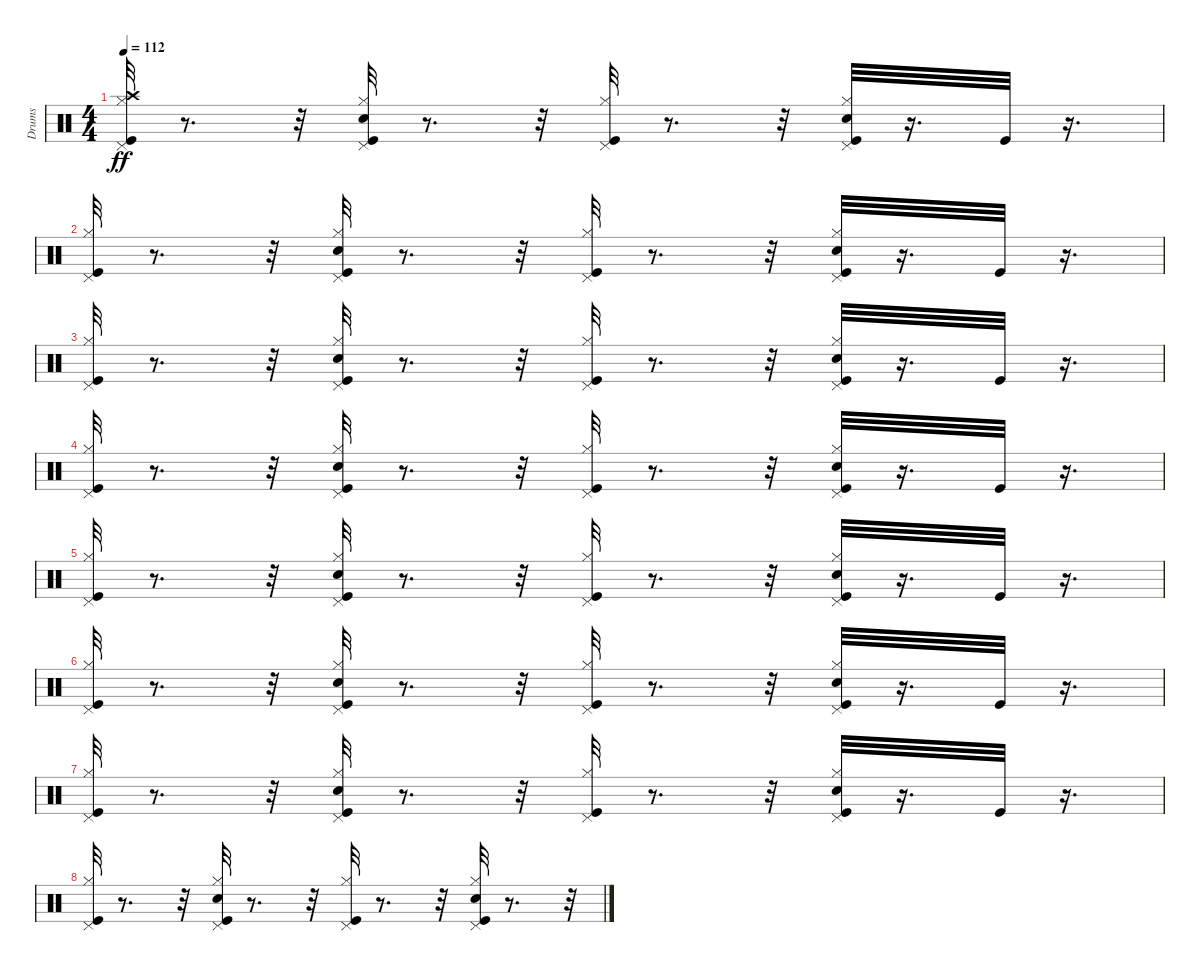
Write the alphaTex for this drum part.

\track ("Drums" "Drums") {instrument percussion}
\staff {score}
\articulation defaults
\ts (4 4)
\tempo 112
\clef neutral
\ks c
("Kick (hit)" "Crash high (hit)" "Hi-Hat (closed)" "Pedal Hi-Hat (hit)").32{dy ff} r.8{d} r.32 ("Hi-Hat (closed)" "Kick (hit)" "Pedal Hi-Hat (hit)" "Snare (hit) 2").32 r.8{d} r.32 ("Pedal Hi-Hat (hit)" "Hi-Hat (closed)" "Kick (hit)").32 r.8{d} r.32 ("Kick (hit)" "Pedal Hi-Hat (hit)" "Snare (hit) 2" "Hi-Hat (closed)").32 r.16{d} "Kick (hit)".32 r.16{d} |
("Pedal Hi-Hat (hit)" "Kick (hit)" "Hi-Hat (closed)").32 r.8{d} r.32 ("Kick (hit)" "Snare (hit) 2" "Hi-Hat (closed)" "Pedal Hi-Hat (hit)").32 r.8{d} r.32 ("Pedal Hi-Hat (hit)" "Hi-Hat (closed)" "Kick (hit)").32 r.8{d} r.32 ("Kick (hit)" "Snare (hit) 2" "Pedal Hi-Hat (hit)" "Hi-Hat (closed)").32 r.16{d} "Kick (hit)".32 r.16{d} |
("Pedal Hi-Hat (hit)" "Kick (hit)" "Hi-Hat (closed)").32 r.8{d} r.32 ("Hi-Hat (closed)" "Pedal Hi-Hat (hit)" "Snare (hit) 2" "Kick (hit)").32 r.8{d} r.32 ("Pedal Hi-Hat (hit)" "Kick (hit)" "Hi-Hat (closed)").32 r.8{d} r.32 ("Pedal Hi-Hat (hit)" "Kick (hit)" "Snare (hit) 2" "Hi-Hat (closed)").32 r.16{d} "Kick (hit)".32 r.16{d} |
("Hi-Hat (closed)" "Pedal Hi-Hat (hit)" "Kick (hit)").32 r.8{d} r.32 ("Pedal Hi-Hat (hit)" "Hi-Hat (closed)" "Kick (hit)" "Snare (hit) 2").32 r.8{d} r.32 ("Pedal Hi-Hat (hit)" "Hi-Hat (closed)" "Kick (hit)").32 r.8{d} r.32 ("Pedal Hi-Hat (hit)" "Snare (hit) 2" "Hi-Hat (closed)" "Kick (hit)").32 r.16{d} "Kick (hit)".32 r.16{d} |
("Hi-Hat (closed)" "Pedal Hi-Hat (hit)" "Kick (hit)").32 r.8{d} r.32 ("Pedal Hi-Hat (hit)" "Kick (hit)" "Hi-Hat (closed)" "Snare (hit) 2").32 r.8{d} r.32 ("Pedal Hi-Hat (hit)" "Hi-Hat (closed)" "Kick (hit)").32 r.8{d} r.32 ("Hi-Hat (closed)" "Snare (hit) 2" "Kick (hit)" "Pedal Hi-Hat (hit)").32 r.16{d} "Kick (hit)".32 r.16{d} |
("Pedal Hi-Hat (hit)" "Kick (hit)" "Hi-Hat (closed)").32 r.8{d} r.32 ("Kick (hit)" "Snare (hit) 2" "Pedal Hi-Hat (hit)" "Hi-Hat (closed)").32 r.8{d} r.32 ("Hi-Hat (closed)" "Pedal Hi-Hat (hit)" "Kick (hit)").32 r.8{d} r.32 ("Pedal Hi-Hat (hit)" "Snare (hit) 2" "Kick (hit)" "Hi-Hat (closed)").32 r.16{d} "Kick (hit)".32 r.16{d} |
("Pedal Hi-Hat (hit)" "Kick (hit)" "Hi-Hat (closed)").32 r.8{d} r.32 ("Pedal Hi-Hat (hit)" "Hi-Hat (closed)" "Kick (hit)" "Snare (hit) 2").32 r.8{d} r.32 ("Kick (hit)" "Pedal Hi-Hat (hit)" "Hi-Hat (closed)").32 r.8{d} r.32 ("Hi-Hat (closed)" "Kick (hit)" "Pedal Hi-Hat (hit)" "Snare (hit) 2").32 r.16{d} "Kick (hit)".32 r.16{d} |
("Pedal Hi-Hat (hit)" "Hi-Hat (closed)" "Kick (hit)").32 r.8{d} r.32 ("Kick (hit)" "Hi-Hat (closed)" "Snare (hit) 2" "Pedal Hi-Hat (hit)").32 r.8{d} r.32 ("Pedal Hi-Hat (hit)" "Hi-Hat (closed)" "Kick (hit)").32 r.8{d} r.32 ("Hi-Hat (closed)" "Snare (hit) 2" "Pedal Hi-Hat (hit)" "Kick (hit)").32 r.8{d} r.32
